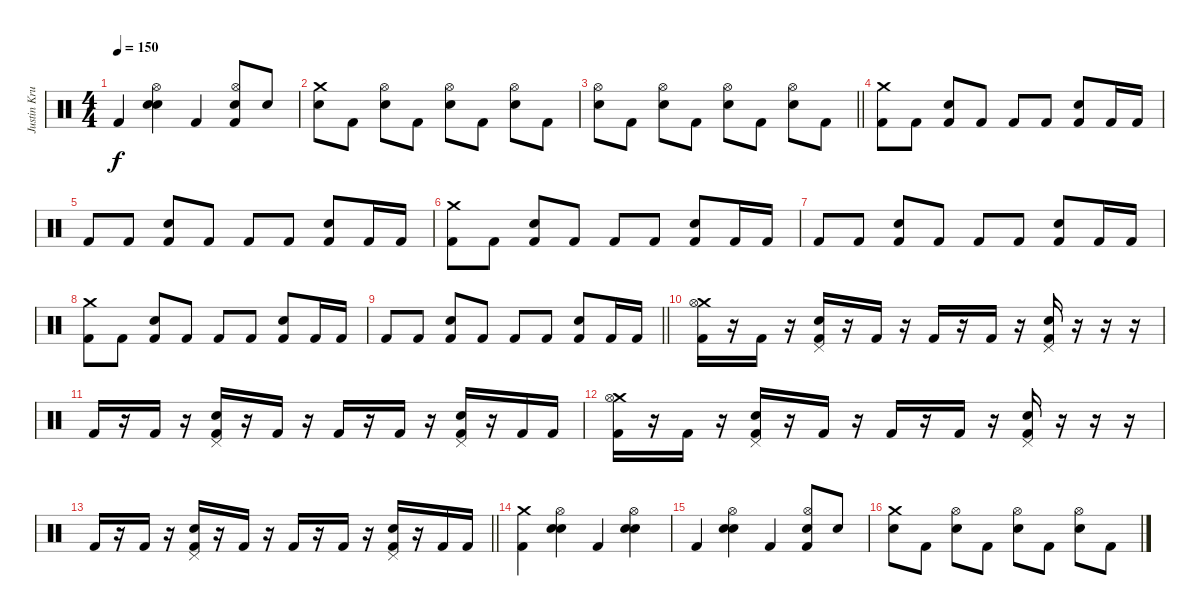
\track ("Justin Kruger" "Justin Kru") {instrument percussion}
\staff {score}
\articulation defaults
\ts (4 4)
\tempo 150
\clef neutral
\ks c "Kick (hit) 2".4{dy f}
("Hi-Hat (open)" "Snare (hit) 2" "Snare (hit) 2").4 "Kick (hit) 2".4 ("Hi-Hat (open)" "Snare (hit) 2" "Kick (hit) 2").8 "Snare (hit) 2".8 |
("Crash medium (hit)" "Snare (hit) 2").8 "Kick (hit) 2".8 ("Hi-Hat (open)" "Snare (hit) 2").8 "Kick (hit) 2".8 ("Hi-Hat (open)" "Snare (hit) 2").8 "Kick (hit) 2".8 ("Hi-Hat (open)" "Snare (hit) 2").8 "Kick (hit) 2".8 |
\barLineRight lightlight
("Hi-Hat (open)" "Snare (hit) 2").8 "Kick (hit) 2".8 ("Hi-Hat (open)" "Snare (hit) 2").8 "Kick (hit) 2".8 ("Hi-Hat (open)" "Snare (hit) 2").8 "Kick (hit) 2".8 ("Hi-Hat (open)" "Snare (hit) 2").8 "Kick (hit) 2".8 |
\section ("" "")
("Crash medium (hit)" "Kick (hit) 2").8 "Kick (hit) 2".8 ("Electric Snare (hit)" "Kick (hit) 2").8 "Kick (hit) 2".8 "Kick (hit) 2".8 "Kick (hit) 2".8 ("Electric Snare (hit)" "Kick (hit) 2").8 "Kick (hit) 2".16 "Kick (hit) 2".16 |
"Kick (hit) 2".8 "Kick (hit) 2".8 ("Electric Snare (hit)" "Kick (hit) 2").8 "Kick (hit) 2".8 "Kick (hit) 2".8 "Kick (hit) 2".8 ("Electric Snare (hit)" "Kick (hit) 2").8 "Kick (hit) 2".16 "Kick (hit) 2".16 |
("Crash medium (hit)" "Kick (hit) 2").8 "Kick (hit) 2".8 ("Electric Snare (hit)" "Kick (hit) 2").8 "Kick (hit) 2".8 "Kick (hit) 2".8 "Kick (hit) 2".8 ("Electric Snare (hit)" "Kick (hit) 2").8 "Kick (hit) 2".16 "Kick (hit) 2".16 |
"Kick (hit) 2".8 "Kick (hit) 2".8 ("Electric Snare (hit)" "Kick (hit) 2").8 "Kick (hit) 2".8 "Kick (hit) 2".8 "Kick (hit) 2".8 ("Electric Snare (hit)" "Kick (hit) 2").8 "Kick (hit) 2".16 "Kick (hit) 2".16 |
("Crash medium (hit)" "Kick (hit) 2").8 "Kick (hit) 2".8 ("Electric Snare (hit)" "Kick (hit) 2").8 "Kick (hit) 2".8 "Kick (hit) 2".8 "Kick (hit) 2".8 ("Electric Snare (hit)" "Kick (hit) 2").8 "Kick (hit) 2".16 "Kick (hit) 2".16 |
\barLineRight lightlight "Kick (hit) 2".8 "Kick (hit) 2".8
("Electric Snare (hit)" "Kick (hit) 2").8 "Kick (hit) 2".8 "Kick (hit) 2".8 "Kick (hit) 2".8 ("Electric Snare (hit)" "Kick (hit) 2").8 "Kick (hit) 2".16 "Kick (hit) 2".16 |
\section ("" "")
("Crash medium (hit)" "Hi-Hat (open)" "Kick (hit) 2").16 r.16 "Kick (hit) 2".16 r.16 ("Pedal Hi-Hat (hit)" "Snare (hit) 2" "Kick (hit) 2").16 r.16 "Kick (hit) 2".16 r.16 "Kick (hit) 2".16 r.16 "Kick (hit) 2".16 r.16 ("Pedal Hi-Hat (hit)" "Snare (hit) 2" "Kick (hit) 2").16 r.16 r.16 r.16 |
"Kick (hit) 2".16 r.16 "Kick (hit) 2".16 r.16 ("Pedal Hi-Hat (hit)" "Snare (hit) 2" "Kick (hit) 2").16 r.16 "Kick (hit) 2".16 r.16 "Kick (hit) 2".16 r.16 "Kick (hit) 2".16 r.16 ("Pedal Hi-Hat (hit)" "Snare (hit) 2" "Kick (hit) 2").16 r.16 "Kick (hit) 2".16 "Kick (hit) 2".16 |
("Crash medium (hit)" "Hi-Hat (open)" "Kick (hit) 2").16 r.16 "Kick (hit) 2".16 r.16 ("Pedal Hi-Hat (hit)" "Snare (hit) 2" "Kick (hit) 2").16 r.16 "Kick (hit) 2".16 r.16 "Kick (hit) 2".16 r.16 "Kick (hit) 2".16 r.16 ("Pedal Hi-Hat (hit)" "Snare (hit) 2" "Kick (hit) 2").16 r.16 r.16 r.16 |
\barLineRight lightlight "Kick (hit) 2".16
r.16 "Kick (hit) 2".16 r.16 ("Pedal Hi-Hat (hit)" "Snare (hit) 2" "Kick (hit) 2").16 r.16 "Kick (hit) 2".16 r.16 "Kick (hit) 2".16 r.16 "Kick (hit) 2".16 r.16 ("Pedal Hi-Hat (hit)" "Snare (hit) 2" "Kick (hit) 2").16 r.16 "Kick (hit) 2".16 "Kick (hit) 2".16 |
\section ("" "")
("Crash medium (hit)" "Kick (hit) 2").4 ("Hi-Hat (open)" "Snare (hit) 2" "Snare (hit) 2").4 "Kick (hit) 2".4 ("Hi-Hat (open)" "Snare (hit) 2" "Snare (hit) 2").4 |
"Kick (hit) 2".4 ("Hi-Hat (open)" "Snare (hit) 2" "Snare (hit) 2").4 "Kick (hit) 2".4 ("Hi-Hat (open)" "Snare (hit) 2" "Kick (hit) 2").8 "Snare (hit) 2".8 |
("Crash medium (hit)" "Snare (hit) 2").8 "Kick (hit) 2".8 ("Hi-Hat (open)" "Snare (hit) 2").8 "Kick (hit) 2".8 ("Hi-Hat (open)" "Snare (hit) 2").8 "Kick (hit) 2".8 ("Hi-Hat (open)" "Snare (hit) 2").8 "Kick (hit) 2".8
